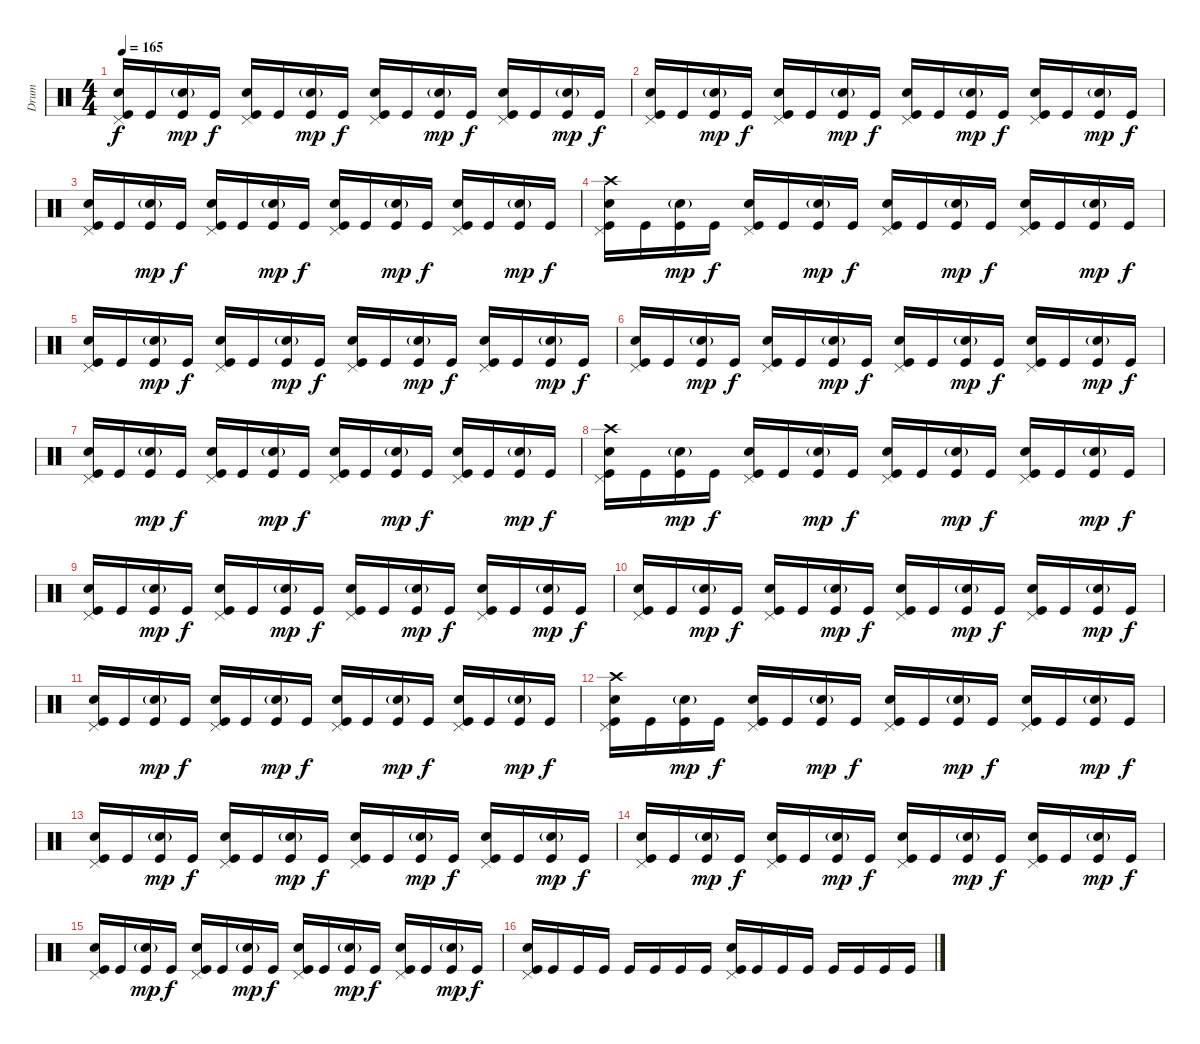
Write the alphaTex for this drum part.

\track ("Drum" "Drum") {instrument percussion}
\staff {score}
\articulation defaults
\ts (4 4)
\tempo 165
\clef neutral
\ks c
("Pedal Hi-Hat (hit)" "Electric Snare (hit)" "Kick (hit)").16{dy f} "Kick (hit)".16 ("Snare (hit) 2"{g} "Kick (hit)").16{dy mp} "Kick (hit)".16{dy f} ("Pedal Hi-Hat (hit)" "Electric Snare (hit)" "Kick (hit)").16 "Kick (hit)".16 ("Snare (hit) 2"{g} "Kick (hit)").16{dy mp} "Kick (hit)".16{dy f} ("Pedal Hi-Hat (hit)" "Electric Snare (hit)" "Kick (hit)").16 "Kick (hit)".16 ("Snare (hit) 2"{g} "Kick (hit)").16{dy mp} "Kick (hit)".16{dy f} ("Pedal Hi-Hat (hit)" "Electric Snare (hit)" "Kick (hit)").16 "Kick (hit)".16 ("Snare (hit) 2"{g} "Kick (hit)").16{dy mp} "Kick (hit)".16{dy f} |
("Pedal Hi-Hat (hit)" "Electric Snare (hit)" "Kick (hit)").16 "Kick (hit)".16 ("Snare (hit) 2"{g} "Kick (hit)").16{dy mp} "Kick (hit)".16{dy f} ("Pedal Hi-Hat (hit)" "Electric Snare (hit)" "Kick (hit)").16 "Kick (hit)".16 ("Snare (hit) 2"{g} "Kick (hit)").16{dy mp} "Kick (hit)".16{dy f} ("Pedal Hi-Hat (hit)" "Electric Snare (hit)" "Kick (hit)").16 "Kick (hit)".16 ("Snare (hit) 2"{g} "Kick (hit)").16{dy mp} "Kick (hit)".16{dy f} ("Pedal Hi-Hat (hit)" "Electric Snare (hit)" "Kick (hit)").16 "Kick (hit)".16 ("Snare (hit) 2"{g} "Kick (hit)").16{dy mp} "Kick (hit)".16{dy f} |
("Pedal Hi-Hat (hit)" "Electric Snare (hit)" "Kick (hit)").16 "Kick (hit)".16 ("Snare (hit) 2"{g} "Kick (hit)").16{dy mp} "Kick (hit)".16{dy f} ("Pedal Hi-Hat (hit)" "Electric Snare (hit)" "Kick (hit)").16 "Kick (hit)".16 ("Snare (hit) 2"{g} "Kick (hit)").16{dy mp} "Kick (hit)".16{dy f} ("Pedal Hi-Hat (hit)" "Electric Snare (hit)" "Kick (hit)").16 "Kick (hit)".16 ("Snare (hit) 2"{g} "Kick (hit)").16{dy mp} "Kick (hit)".16{dy f} ("Pedal Hi-Hat (hit)" "Electric Snare (hit)" "Kick (hit)").16 "Kick (hit)".16 ("Snare (hit) 2"{g} "Kick (hit)").16{dy mp} "Kick (hit)".16{dy f} |
("Crash high (hit)" "Pedal Hi-Hat (hit)" "Electric Snare (hit)" "Kick (hit)").16 "Kick (hit)".16 ("Snare (hit) 2"{g} "Kick (hit)").16{dy mp} "Kick (hit)".16{dy f} ("Pedal Hi-Hat (hit)" "Electric Snare (hit)" "Kick (hit)").16 "Kick (hit)".16 ("Snare (hit) 2"{g} "Kick (hit)").16{dy mp} "Kick (hit)".16{dy f} ("Pedal Hi-Hat (hit)" "Electric Snare (hit)" "Kick (hit)").16 "Kick (hit)".16 ("Snare (hit) 2"{g} "Kick (hit)").16{dy mp} "Kick (hit)".16{dy f} ("Pedal Hi-Hat (hit)" "Electric Snare (hit)" "Kick (hit)").16 "Kick (hit)".16 ("Snare (hit) 2"{g} "Kick (hit)").16{dy mp} "Kick (hit)".16{dy f} |
("Pedal Hi-Hat (hit)" "Electric Snare (hit)" "Kick (hit)").16 "Kick (hit)".16 ("Snare (hit) 2"{g} "Kick (hit)").16{dy mp} "Kick (hit)".16{dy f} ("Pedal Hi-Hat (hit)" "Electric Snare (hit)" "Kick (hit)").16 "Kick (hit)".16 ("Snare (hit) 2"{g} "Kick (hit)").16{dy mp} "Kick (hit)".16{dy f} ("Pedal Hi-Hat (hit)" "Electric Snare (hit)" "Kick (hit)").16 "Kick (hit)".16 ("Snare (hit) 2"{g} "Kick (hit)").16{dy mp} "Kick (hit)".16{dy f} ("Pedal Hi-Hat (hit)" "Electric Snare (hit)" "Kick (hit)").16 "Kick (hit)".16 ("Snare (hit) 2"{g} "Kick (hit)").16{dy mp} "Kick (hit)".16{dy f} |
("Pedal Hi-Hat (hit)" "Electric Snare (hit)" "Kick (hit)").16 "Kick (hit)".16 ("Snare (hit) 2"{g} "Kick (hit)").16{dy mp} "Kick (hit)".16{dy f} ("Pedal Hi-Hat (hit)" "Electric Snare (hit)" "Kick (hit)").16 "Kick (hit)".16 ("Snare (hit) 2"{g} "Kick (hit)").16{dy mp} "Kick (hit)".16{dy f} ("Pedal Hi-Hat (hit)" "Electric Snare (hit)" "Kick (hit)").16 "Kick (hit)".16 ("Snare (hit) 2"{g} "Kick (hit)").16{dy mp} "Kick (hit)".16{dy f} ("Pedal Hi-Hat (hit)" "Electric Snare (hit)" "Kick (hit)").16 "Kick (hit)".16 ("Snare (hit) 2"{g} "Kick (hit)").16{dy mp} "Kick (hit)".16{dy f} |
("Pedal Hi-Hat (hit)" "Electric Snare (hit)" "Kick (hit)").16 "Kick (hit)".16 ("Snare (hit) 2"{g} "Kick (hit)").16{dy mp} "Kick (hit)".16{dy f} ("Pedal Hi-Hat (hit)" "Electric Snare (hit)" "Kick (hit)").16 "Kick (hit)".16 ("Snare (hit) 2"{g} "Kick (hit)").16{dy mp} "Kick (hit)".16{dy f} ("Pedal Hi-Hat (hit)" "Electric Snare (hit)" "Kick (hit)").16 "Kick (hit)".16 ("Snare (hit) 2"{g} "Kick (hit)").16{dy mp} "Kick (hit)".16{dy f} ("Pedal Hi-Hat (hit)" "Electric Snare (hit)" "Kick (hit)").16 "Kick (hit)".16 ("Snare (hit) 2"{g} "Kick (hit)").16{dy mp} "Kick (hit)".16{dy f} |
("Crash high (hit)" "Pedal Hi-Hat (hit)" "Electric Snare (hit)" "Kick (hit)").16 "Kick (hit)".16 ("Snare (hit) 2"{g} "Kick (hit)").16{dy mp} "Kick (hit)".16{dy f} ("Pedal Hi-Hat (hit)" "Electric Snare (hit)" "Kick (hit)").16 "Kick (hit)".16 ("Snare (hit) 2"{g} "Kick (hit)").16{dy mp} "Kick (hit)".16{dy f} ("Pedal Hi-Hat (hit)" "Electric Snare (hit)" "Kick (hit)").16 "Kick (hit)".16 ("Snare (hit) 2"{g} "Kick (hit)").16{dy mp} "Kick (hit)".16{dy f} ("Pedal Hi-Hat (hit)" "Electric Snare (hit)" "Kick (hit)").16 "Kick (hit)".16 ("Snare (hit) 2"{g} "Kick (hit)").16{dy mp} "Kick (hit)".16{dy f} |
("Pedal Hi-Hat (hit)" "Electric Snare (hit)" "Kick (hit)").16 "Kick (hit)".16 ("Snare (hit) 2"{g} "Kick (hit)").16{dy mp} "Kick (hit)".16{dy f} ("Pedal Hi-Hat (hit)" "Electric Snare (hit)" "Kick (hit)").16 "Kick (hit)".16 ("Snare (hit) 2"{g} "Kick (hit)").16{dy mp} "Kick (hit)".16{dy f} ("Pedal Hi-Hat (hit)" "Electric Snare (hit)" "Kick (hit)").16 "Kick (hit)".16 ("Snare (hit) 2"{g} "Kick (hit)").16{dy mp} "Kick (hit)".16{dy f} ("Pedal Hi-Hat (hit)" "Electric Snare (hit)" "Kick (hit)").16 "Kick (hit)".16 ("Snare (hit) 2"{g} "Kick (hit)").16{dy mp} "Kick (hit)".16{dy f} |
("Pedal Hi-Hat (hit)" "Electric Snare (hit)" "Kick (hit)").16 "Kick (hit)".16 ("Snare (hit) 2"{g} "Kick (hit)").16{dy mp} "Kick (hit)".16{dy f} ("Pedal Hi-Hat (hit)" "Electric Snare (hit)" "Kick (hit)").16 "Kick (hit)".16 ("Snare (hit) 2"{g} "Kick (hit)").16{dy mp} "Kick (hit)".16{dy f} ("Pedal Hi-Hat (hit)" "Electric Snare (hit)" "Kick (hit)").16 "Kick (hit)".16 ("Snare (hit) 2"{g} "Kick (hit)").16{dy mp} "Kick (hit)".16{dy f} ("Pedal Hi-Hat (hit)" "Electric Snare (hit)" "Kick (hit)").16 "Kick (hit)".16 ("Snare (hit) 2"{g} "Kick (hit)").16{dy mp} "Kick (hit)".16{dy f} |
("Pedal Hi-Hat (hit)" "Electric Snare (hit)" "Kick (hit)").16 "Kick (hit)".16 ("Snare (hit) 2"{g} "Kick (hit)").16{dy mp} "Kick (hit)".16{dy f} ("Pedal Hi-Hat (hit)" "Electric Snare (hit)" "Kick (hit)").16 "Kick (hit)".16 ("Snare (hit) 2"{g} "Kick (hit)").16{dy mp} "Kick (hit)".16{dy f} ("Pedal Hi-Hat (hit)" "Electric Snare (hit)" "Kick (hit)").16 "Kick (hit)".16 ("Snare (hit) 2"{g} "Kick (hit)").16{dy mp} "Kick (hit)".16{dy f} ("Pedal Hi-Hat (hit)" "Electric Snare (hit)" "Kick (hit)").16 "Kick (hit)".16 ("Snare (hit) 2"{g} "Kick (hit)").16{dy mp} "Kick (hit)".16{dy f} |
("Crash high (hit)" "Pedal Hi-Hat (hit)" "Electric Snare (hit)" "Kick (hit)").16 "Kick (hit)".16 ("Snare (hit) 2"{g} "Kick (hit)").16{dy mp} "Kick (hit)".16{dy f} ("Pedal Hi-Hat (hit)" "Electric Snare (hit)" "Kick (hit)").16 "Kick (hit)".16 ("Snare (hit) 2"{g} "Kick (hit)").16{dy mp} "Kick (hit)".16{dy f} ("Pedal Hi-Hat (hit)" "Electric Snare (hit)" "Kick (hit)").16 "Kick (hit)".16 ("Snare (hit) 2"{g} "Kick (hit)").16{dy mp} "Kick (hit)".16{dy f} ("Pedal Hi-Hat (hit)" "Electric Snare (hit)" "Kick (hit)").16 "Kick (hit)".16 ("Snare (hit) 2"{g} "Kick (hit)").16{dy mp} "Kick (hit)".16{dy f} |
("Pedal Hi-Hat (hit)" "Electric Snare (hit)" "Kick (hit)").16 "Kick (hit)".16 ("Snare (hit) 2"{g} "Kick (hit)").16{dy mp} "Kick (hit)".16{dy f} ("Pedal Hi-Hat (hit)" "Electric Snare (hit)" "Kick (hit)").16 "Kick (hit)".16 ("Snare (hit) 2"{g} "Kick (hit)").16{dy mp} "Kick (hit)".16{dy f} ("Pedal Hi-Hat (hit)" "Electric Snare (hit)" "Kick (hit)").16 "Kick (hit)".16 ("Snare (hit) 2"{g} "Kick (hit)").16{dy mp} "Kick (hit)".16{dy f} ("Pedal Hi-Hat (hit)" "Electric Snare (hit)" "Kick (hit)").16 "Kick (hit)".16 ("Snare (hit) 2"{g} "Kick (hit)").16{dy mp} "Kick (hit)".16{dy f} |
("Pedal Hi-Hat (hit)" "Electric Snare (hit)" "Kick (hit)").16 "Kick (hit)".16 ("Snare (hit) 2"{g} "Kick (hit)").16{dy mp} "Kick (hit)".16{dy f} ("Pedal Hi-Hat (hit)" "Electric Snare (hit)" "Kick (hit)").16 "Kick (hit)".16 ("Snare (hit) 2"{g} "Kick (hit)").16{dy mp} "Kick (hit)".16{dy f} ("Pedal Hi-Hat (hit)" "Electric Snare (hit)" "Kick (hit)").16 "Kick (hit)".16 ("Snare (hit) 2"{g} "Kick (hit)").16{dy mp} "Kick (hit)".16{dy f} ("Pedal Hi-Hat (hit)" "Electric Snare (hit)" "Kick (hit)").16 "Kick (hit)".16 ("Snare (hit) 2"{g} "Kick (hit)").16{dy mp} "Kick (hit)".16{dy f} |
("Pedal Hi-Hat (hit)" "Electric Snare (hit)" "Kick (hit)").16 "Kick (hit)".16 ("Snare (hit) 2"{g} "Kick (hit)").16{dy mp} "Kick (hit)".16{dy f} ("Pedal Hi-Hat (hit)" "Electric Snare (hit)" "Kick (hit)").16 "Kick (hit)".16 ("Snare (hit) 2"{g} "Kick (hit)").16{dy mp} "Kick (hit)".16{dy f} ("Pedal Hi-Hat (hit)" "Electric Snare (hit)" "Kick (hit)").16 "Kick (hit)".16 ("Snare (hit) 2"{g} "Kick (hit)").16{dy mp} "Kick (hit)".16{dy f} ("Pedal Hi-Hat (hit)" "Electric Snare (hit)" "Kick (hit)").16 "Kick (hit)".16 ("Snare (hit) 2"{g} "Kick (hit)").16{dy mp} "Kick (hit)".16{dy f} |
("Pedal Hi-Hat (hit)" "Electric Snare (hit)" "Kick (hit)").16 "Kick (hit)".16 "Kick (hit)".16 "Kick (hit)".16 "Kick (hit)".16 "Kick (hit)".16 "Kick (hit)".16 "Kick (hit)".16 ("Pedal Hi-Hat (hit)" "Electric Snare (hit)" "Kick (hit)").16 "Kick (hit)".16 "Kick (hit)".16 "Kick (hit)".16 "Kick (hit)".16 "Kick (hit)".16 "Kick (hit)".16 "Kick (hit)".16
